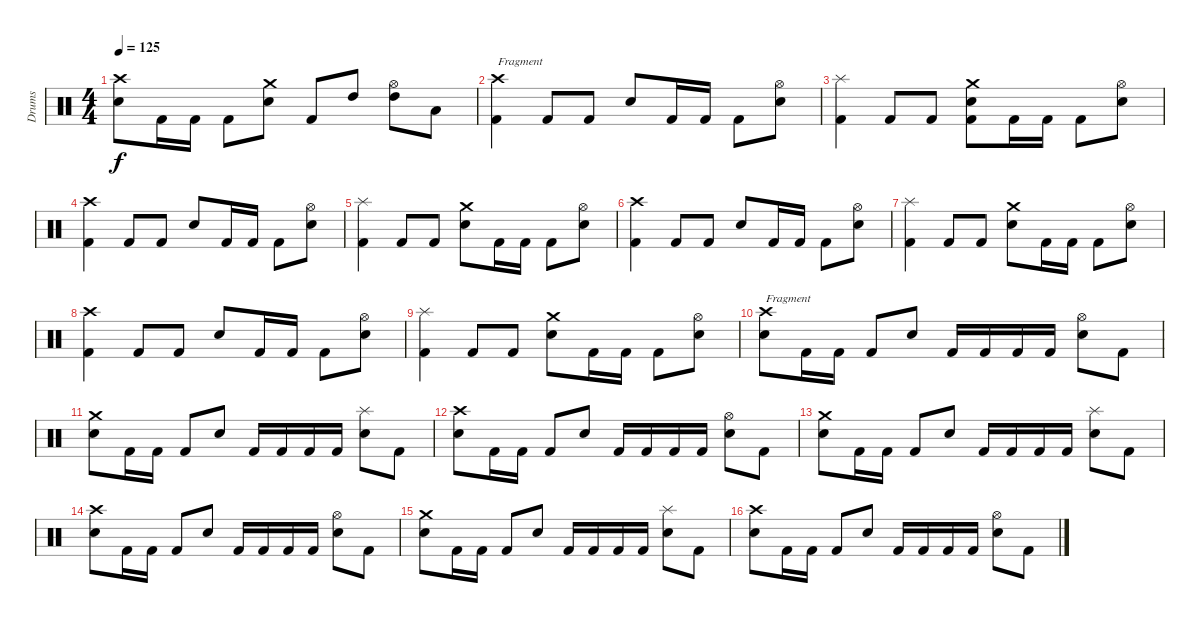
\track ("Drums" "Drums") {instrument percussion}
\staff {score}
\articulation defaults
\ts (4 4)
\tempo 125
\clef neutral
\ks c
("Crash high (hit)" "Snare (hit) 2").8{dy f} "Kick (hit) 2".16 "Kick (hit) 2".16 "Kick (hit) 2".8 ("Crash medium (hit)" "Snare (hit) 2").8 "Kick (hit) 2".8 "High Tom (hit)".8 ("Hi-Hat (open)" "High Tom (hit)").8 "Low Tom (hit)".8 |
("Crash high (hit)" "Kick (hit) 2").4{txt "Fragment"} "Kick (hit) 2".8 "Kick (hit) 2".8 "Snare (hit) 2".8 "Kick (hit) 2".16 "Kick (hit) 2".16 "Kick (hit) 2".8 ("Hi-Hat (open)" "Snare (hit) 2").8 |
("Splash (hit)" "Kick (hit) 2").4 "Kick (hit) 2".8 "Kick (hit) 2".8 ("Crash medium (hit)" "Snare (hit) 2" "Kick (hit) 2").8 "Kick (hit) 2".16 "Kick (hit) 2".16 "Kick (hit) 2".8 ("Hi-Hat (open)" "Snare (hit) 2").8 |
("Crash high (hit)" "Kick (hit) 2").4 "Kick (hit) 2".8 "Kick (hit) 2".8 "Snare (hit) 2".8 "Kick (hit) 2".16 "Kick (hit) 2".16 "Kick (hit) 2".8 ("Hi-Hat (open)" "Snare (hit) 2").8 |
("Splash (hit)" "Kick (hit) 2").4 "Kick (hit) 2".8 "Kick (hit) 2".8 ("Crash medium (hit)" "Snare (hit) 2").8 "Kick (hit) 2".16 "Kick (hit) 2".16 "Kick (hit) 2".8 ("Hi-Hat (open)" "Snare (hit) 2").8 |
("Crash high (hit)" "Kick (hit) 2").4 "Kick (hit) 2".8 "Kick (hit) 2".8 "Snare (hit) 2".8 "Kick (hit) 2".16 "Kick (hit) 2".16 "Kick (hit) 2".8 ("Hi-Hat (open)" "Snare (hit) 2").8 |
("Splash (hit)" "Kick (hit) 2").4 "Kick (hit) 2".8 "Kick (hit) 2".8 ("Crash medium (hit)" "Snare (hit) 2").8 "Kick (hit) 2".16 "Kick (hit) 2".16 "Kick (hit) 2".8 ("Hi-Hat (open)" "Snare (hit) 2").8 |
("Crash high (hit)" "Kick (hit) 2").4 "Kick (hit) 2".8 "Kick (hit) 2".8 "Snare (hit) 2".8 "Kick (hit) 2".16 "Kick (hit) 2".16 "Kick (hit) 2".8 ("Hi-Hat (open)" "Snare (hit) 2").8 |
("Splash (hit)" "Kick (hit) 2").4 "Kick (hit) 2".8 "Kick (hit) 2".8 ("Crash medium (hit)" "Snare (hit) 2").8 "Kick (hit) 2".16 "Kick (hit) 2".16 "Kick (hit) 2".8 ("Hi-Hat (open)" "Snare (hit) 2").8 |
("Crash high (hit)" "Snare (hit) 2").8{txt "Fragment"} "Kick (hit) 2".16 "Kick (hit) 2".16 "Kick (hit) 2".8 "Snare (hit) 2".8 "Kick (hit) 2".16 "Kick (hit) 2".16 "Kick (hit) 2".16 "Kick (hit) 2".16 ("Hi-Hat (open)" "Snare (hit) 2").8 "Kick (hit) 2".8 |
("Crash medium (hit)" "Snare (hit) 2").8 "Kick (hit) 2".16 "Kick (hit) 2".16 "Kick (hit) 2".8 "Snare (hit) 2".8 "Kick (hit) 2".16 "Kick (hit) 2".16 "Kick (hit) 2".16 "Kick (hit) 2".16 ("Splash (hit)" "Snare (hit) 2").8 "Kick (hit) 2".8 |
("Crash high (hit)" "Snare (hit) 2").8 "Kick (hit) 2".16 "Kick (hit) 2".16 "Kick (hit) 2".8 "Snare (hit) 2".8 "Kick (hit) 2".16 "Kick (hit) 2".16 "Kick (hit) 2".16 "Kick (hit) 2".16 ("Hi-Hat (open)" "Snare (hit) 2").8 "Kick (hit) 2".8 |
("Crash medium (hit)" "Snare (hit) 2").8 "Kick (hit) 2".16 "Kick (hit) 2".16 "Kick (hit) 2".8 "Snare (hit) 2".8 "Kick (hit) 2".16 "Kick (hit) 2".16 "Kick (hit) 2".16 "Kick (hit) 2".16 ("Splash (hit)" "Snare (hit) 2").8 "Kick (hit) 2".8 |
("Crash high (hit)" "Snare (hit) 2").8 "Kick (hit) 2".16 "Kick (hit) 2".16 "Kick (hit) 2".8 "Snare (hit) 2".8 "Kick (hit) 2".16 "Kick (hit) 2".16 "Kick (hit) 2".16 "Kick (hit) 2".16 ("Hi-Hat (open)" "Snare (hit) 2").8 "Kick (hit) 2".8 |
("Crash medium (hit)" "Snare (hit) 2").8 "Kick (hit) 2".16 "Kick (hit) 2".16 "Kick (hit) 2".8 "Snare (hit) 2".8 "Kick (hit) 2".16 "Kick (hit) 2".16 "Kick (hit) 2".16 "Kick (hit) 2".16 ("Splash (hit)" "Snare (hit) 2").8 "Kick (hit) 2".8 |
("Crash high (hit)" "Snare (hit) 2").8 "Kick (hit) 2".16 "Kick (hit) 2".16 "Kick (hit) 2".8 "Snare (hit) 2".8 "Kick (hit) 2".16 "Kick (hit) 2".16 "Kick (hit) 2".16 "Kick (hit) 2".16 ("Hi-Hat (open)" "Snare (hit) 2").8 "Kick (hit) 2".8
